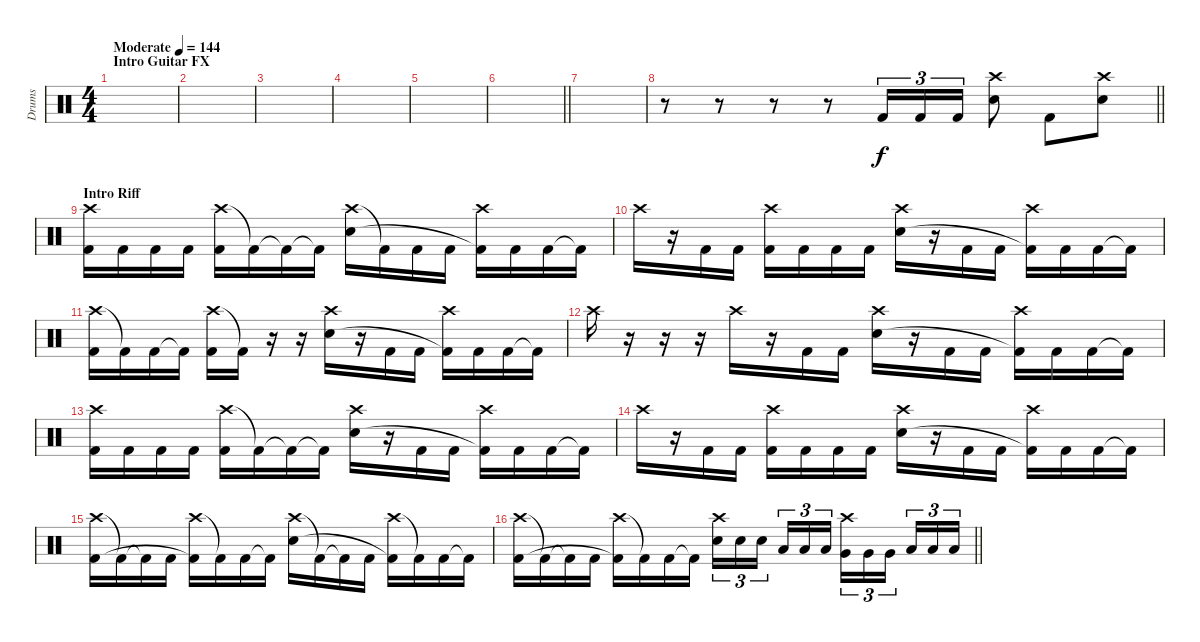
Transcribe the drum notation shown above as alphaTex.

\track ("Drums" "Drums") {instrument percussion}
\staff {score}
\articulation defaults
\ts (4 4)
\section ("" "Intro Guitar FX")
\tempo (144 "Moderate")
\clef neutral
\ks c
|
|
|
|
|
\barLineRight lightlight
|
\section ("" "")
|
\barLineRight lightlight
r.8 r.8 r.8 r.8 "Kick (hit) 2".16{tu (3 2)} "Kick (hit) 2".16{tu (3 2)} "Kick (hit) 2".16{tu (3 2)} ("Crash high (hit)" "Electric Snare (hit)").8 "Kick (hit) 2".8 ("Crash high (hit)" "Electric Snare (hit)").8 |
\section ("" "Intro Riff")
("Crash high (hit)" "Kick (hit) 2").16 "Kick (hit) 2".16 "Kick (hit) 2".16 "Kick (hit) 2".16 ("Crash high (hit)" "Kick (hit) 2").16 "Kick (hit) 2"{t}.16 "Kick (hit) 2"{t}.16 "Kick (hit) 2"{t}.16 ("Crash high (hit)" "Electric Snare (hit)").16 "Kick (hit) 2"{t}.16 "Kick (hit) 2".16 "Kick (hit) 2".16 ("Crash high (hit)" "Kick (hit) 2"{t}).16 "Kick (hit) 2".16 "Kick (hit) 2".16 "Kick (hit) 2"{t}.16 |
"Crash high (hit)".16 r.16 "Kick (hit) 2".16 "Kick (hit) 2".16 ("Crash high (hit)" "Kick (hit) 2").16 "Kick (hit) 2".16 "Kick (hit) 2".16 "Kick (hit) 2".16 ("Crash high (hit)" "Electric Snare (hit)").16 r.16 "Kick (hit) 2".16 "Kick (hit) 2".16 ("Crash high (hit)" "Kick (hit) 2"{t}).16 "Kick (hit) 2".16 "Kick (hit) 2".16 "Kick (hit) 2"{t}.16 |
("Crash high (hit)" "Kick (hit) 2").16 "Kick (hit) 2"{t}.16 "Kick (hit) 2".16 "Kick (hit) 2"{t}.16 ("Crash high (hit)" "Kick (hit) 2").16 "Kick (hit) 2"{t}.16 r.16 r.16 ("Crash high (hit)" "Electric Snare (hit)").16 r.16 "Kick (hit) 2".16 "Kick (hit) 2".16 ("Crash high (hit)" "Kick (hit) 2"{t}).16 "Kick (hit) 2".16 "Kick (hit) 2".16 "Kick (hit) 2"{t}.16 |
"Crash high (hit)".16 r.16 r.16 r.16 "Crash high (hit)".16 r.16 "Kick (hit) 2".16 "Kick (hit) 2".16 ("Crash high (hit)" "Electric Snare (hit)").16 r.16 "Kick (hit) 2".16 "Kick (hit) 2".16 ("Crash high (hit)" "Kick (hit) 2"{t}).16 "Kick (hit) 2".16 "Kick (hit) 2".16 "Kick (hit) 2"{t}.16 |
("Crash high (hit)" "Kick (hit) 2").16 "Kick (hit) 2".16 "Kick (hit) 2".16 "Kick (hit) 2".16 ("Crash high (hit)" "Kick (hit) 2").16 "Kick (hit) 2"{t}.16 "Kick (hit) 2"{t}.16 "Kick (hit) 2"{t}.16 ("Crash high (hit)" "Electric Snare (hit)").16 r.16 "Kick (hit) 2".16 "Kick (hit) 2".16 ("Crash high (hit)" "Kick (hit) 2"{t}).16 "Kick (hit) 2".16 "Kick (hit) 2".16 "Kick (hit) 2"{t}.16 |
"Crash high (hit)".16 r.16 "Kick (hit) 2".16 "Kick (hit) 2".16 ("Crash high (hit)" "Kick (hit) 2").16 "Kick (hit) 2".16 "Kick (hit) 2".16 "Kick (hit) 2".16 ("Crash high (hit)" "Electric Snare (hit)").16 r.16 "Kick (hit) 2".16 "Kick (hit) 2".16 ("Crash high (hit)" "Kick (hit) 2"{t}).16 "Kick (hit) 2".16 "Kick (hit) 2".16 "Kick (hit) 2"{t}.16 |
("Crash high (hit)" "Kick (hit) 2").16 "Kick (hit) 2"{t}.16 "Kick (hit) 2"{t}.16 "Kick (hit) 2".16 ("Crash high (hit)" "Kick (hit) 2"{t}).16 "Kick (hit) 2"{t}.16 "Kick (hit) 2".16 "Kick (hit) 2"{t}.16 ("Crash high (hit)" "Electric Snare (hit)").16 "Kick (hit) 2"{t}.16 "Kick (hit) 2"{t}.16 "Kick (hit) 2".16 ("Crash high (hit)" "Kick (hit) 2"{t}).16 "Kick (hit) 2"{t}.16 "Kick (hit) 2".16 "Kick (hit) 2"{t}.16 |
\barLineRight lightlight
("Crash high (hit)" "Kick (hit) 2").16 "Kick (hit) 2"{t}.16 "Kick (hit) 2"{t}.16 "Kick (hit) 2".16 ("Crash high (hit)" "Kick (hit) 2"{t}).16 "Kick (hit) 2"{t}.16 "Kick (hit) 2".16 "Kick (hit) 2"{t}.16 ("Crash high (hit)" "Electric Snare (hit)").16{tu (3 2)} "Electric Snare (hit)".16{tu (3 2)} "Electric Snare (hit)".16{tu (3 2) beam splitsecondary} "Low Tom (hit)".16{tu (3 2)} "Low Tom (hit)".16{tu (3 2)} "Low Tom (hit)".16{tu (3 2)} ("Crash high (hit)" "Very Low Tom (hit)").16{tu (3 2)} "Very Low Tom (hit)".16{tu (3 2)} "Very Low Tom (hit)".16{tu (3 2) beam splitsecondary} "Low Floor Tom (hit)".16{tu (3 2)} "Low Floor Tom (hit)".16{tu (3 2)} "Low Floor Tom (hit)".16{tu (3 2)}
